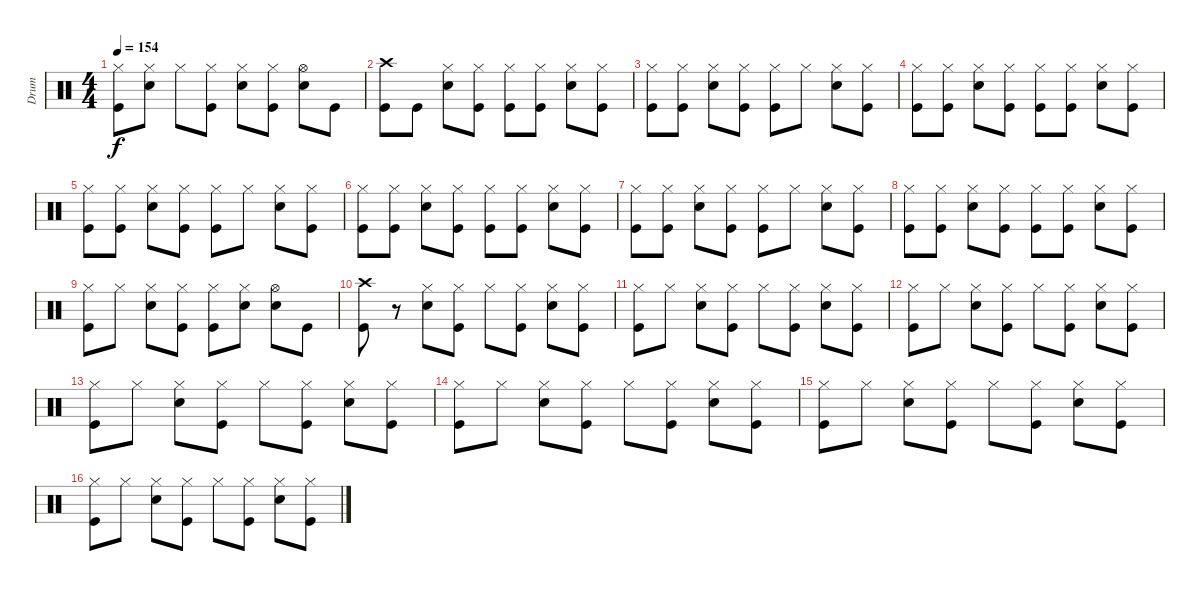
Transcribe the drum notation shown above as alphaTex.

\track ("Drum" "Drum") {instrument percussion}
\staff {score}
\articulation defaults
\ts (4 4)
\tempo 154
\clef neutral
\ks c
("Kick (hit)" "Hi-Hat (closed)").8{dy f} ("Snare (hit) 2" "Hi-Hat (closed)").8 "Hi-Hat (closed)".8 ("Kick (hit)" "Hi-Hat (closed)").8 ("Snare (hit) 2" "Hi-Hat (closed)").8 ("Kick (hit)" "Hi-Hat (closed)").8 ("Snare (hit) 2" "Hi-Hat (open)").8 "Kick (hit)".8 |
("Kick (hit)" "Crash high (hit)").8 "Kick (hit)".8 ("Snare (hit) 2" "Hi-Hat (closed)").8 ("Kick (hit)" "Hi-Hat (closed)").8 ("Kick (hit)" "Hi-Hat (closed)").8 ("Kick (hit)" "Hi-Hat (closed)").8 ("Snare (hit) 2" "Hi-Hat (closed)").8 ("Kick (hit)" "Hi-Hat (closed)").8 |
("Kick (hit)" "Hi-Hat (closed)").8 ("Kick (hit)" "Hi-Hat (closed)").8 ("Snare (hit) 2" "Hi-Hat (closed)").8 ("Kick (hit)" "Hi-Hat (closed)").8 ("Kick (hit)" "Hi-Hat (closed)").8 "Hi-Hat (closed)".8 ("Snare (hit) 2" "Hi-Hat (closed)").8 ("Kick (hit)" "Hi-Hat (closed)").8 |
("Kick (hit)" "Hi-Hat (closed)").8 ("Kick (hit)" "Hi-Hat (closed)").8 ("Snare (hit) 2" "Hi-Hat (closed)").8 ("Kick (hit)" "Hi-Hat (closed)").8 ("Kick (hit)" "Hi-Hat (closed)").8 ("Kick (hit)" "Hi-Hat (closed)").8 ("Snare (hit) 2" "Hi-Hat (closed)").8 ("Kick (hit)" "Hi-Hat (closed)").8 |
("Kick (hit)" "Hi-Hat (closed)").8 ("Kick (hit)" "Hi-Hat (closed)").8 ("Snare (hit) 2" "Hi-Hat (closed)").8 ("Kick (hit)" "Hi-Hat (closed)").8 ("Kick (hit)" "Hi-Hat (closed)").8 "Hi-Hat (closed)".8 ("Snare (hit) 2" "Hi-Hat (closed)").8 ("Kick (hit)" "Hi-Hat (closed)").8 |
("Kick (hit)" "Hi-Hat (closed)").8 ("Kick (hit)" "Hi-Hat (closed)").8 ("Snare (hit) 2" "Hi-Hat (closed)").8 ("Kick (hit)" "Hi-Hat (closed)").8 ("Kick (hit)" "Hi-Hat (closed)").8 ("Kick (hit)" "Hi-Hat (closed)").8 ("Snare (hit) 2" "Hi-Hat (closed)").8 ("Kick (hit)" "Hi-Hat (closed)").8 |
("Kick (hit)" "Hi-Hat (closed)").8 ("Kick (hit)" "Hi-Hat (closed)").8 ("Snare (hit) 2" "Hi-Hat (closed)").8 ("Kick (hit)" "Hi-Hat (closed)").8 ("Kick (hit)" "Hi-Hat (closed)").8 "Hi-Hat (closed)".8 ("Snare (hit) 2" "Hi-Hat (closed)").8 ("Kick (hit)" "Hi-Hat (closed)").8 |
("Kick (hit)" "Hi-Hat (closed)").8 ("Kick (hit)" "Hi-Hat (closed)").8 ("Snare (hit) 2" "Hi-Hat (closed)").8 ("Kick (hit)" "Hi-Hat (closed)").8 ("Kick (hit)" "Hi-Hat (closed)").8 ("Kick (hit)" "Hi-Hat (closed)").8 ("Snare (hit) 2" "Hi-Hat (closed)").8 ("Kick (hit)" "Hi-Hat (closed)").8 |
("Kick (hit)" "Hi-Hat (closed)").8 "Hi-Hat (closed)".8 ("Snare (hit) 2" "Hi-Hat (closed)").8 ("Kick (hit)" "Hi-Hat (closed)").8 ("Kick (hit)" "Hi-Hat (closed)").8 ("Snare (hit) 2" "Hi-Hat (closed)").8 ("Snare (hit) 2" "Hi-Hat (open)").8 "Kick (hit)".8 |
("Kick (hit)" "Crash high (hit)").8 r.8 ("Snare (hit) 2" "Hi-Hat (closed)").8 ("Kick (hit)" "Hi-Hat (closed)").8 "Hi-Hat (closed)".8 ("Kick (hit)" "Hi-Hat (closed)").8 ("Snare (hit) 2" "Hi-Hat (closed)").8 ("Kick (hit)" "Hi-Hat (closed)").8 |
("Kick (hit)" "Hi-Hat (closed)").8 "Hi-Hat (closed)".8 ("Snare (hit) 2" "Hi-Hat (closed)").8 ("Kick (hit)" "Hi-Hat (closed)").8 "Hi-Hat (closed)".8 ("Kick (hit)" "Hi-Hat (closed)").8 ("Snare (hit) 2" "Hi-Hat (closed)").8 ("Kick (hit)" "Hi-Hat (closed)").8 |
("Kick (hit)" "Hi-Hat (closed)").8 "Hi-Hat (closed)".8 ("Snare (hit) 2" "Hi-Hat (closed)").8 ("Kick (hit)" "Hi-Hat (closed)").8 "Hi-Hat (closed)".8 ("Kick (hit)" "Hi-Hat (closed)").8 ("Snare (hit) 2" "Hi-Hat (closed)").8 ("Kick (hit)" "Hi-Hat (closed)").8 |
("Kick (hit)" "Hi-Hat (closed)").8 "Hi-Hat (closed)".8 ("Snare (hit) 2" "Hi-Hat (closed)").8 ("Kick (hit)" "Hi-Hat (closed)").8 "Hi-Hat (closed)".8 ("Kick (hit)" "Hi-Hat (closed)").8 ("Snare (hit) 2" "Hi-Hat (closed)").8 ("Kick (hit)" "Hi-Hat (closed)").8 |
("Kick (hit)" "Hi-Hat (closed)").8 "Hi-Hat (closed)".8 ("Snare (hit) 2" "Hi-Hat (closed)").8 ("Kick (hit)" "Hi-Hat (closed)").8 "Hi-Hat (closed)".8 ("Kick (hit)" "Hi-Hat (closed)").8 ("Snare (hit) 2" "Hi-Hat (closed)").8 ("Kick (hit)" "Hi-Hat (closed)").8 |
("Kick (hit)" "Hi-Hat (closed)").8 "Hi-Hat (closed)".8 ("Snare (hit) 2" "Hi-Hat (closed)").8 ("Kick (hit)" "Hi-Hat (closed)").8 "Hi-Hat (closed)".8 ("Kick (hit)" "Hi-Hat (closed)").8 ("Snare (hit) 2" "Hi-Hat (closed)").8 ("Kick (hit)" "Hi-Hat (closed)").8 |
("Kick (hit)" "Hi-Hat (closed)").8 "Hi-Hat (closed)".8 ("Snare (hit) 2" "Hi-Hat (closed)").8 ("Kick (hit)" "Hi-Hat (closed)").8 "Hi-Hat (closed)".8 ("Kick (hit)" "Hi-Hat (closed)").8 ("Snare (hit) 2" "Hi-Hat (closed)").8 ("Kick (hit)" "Hi-Hat (closed)").8
